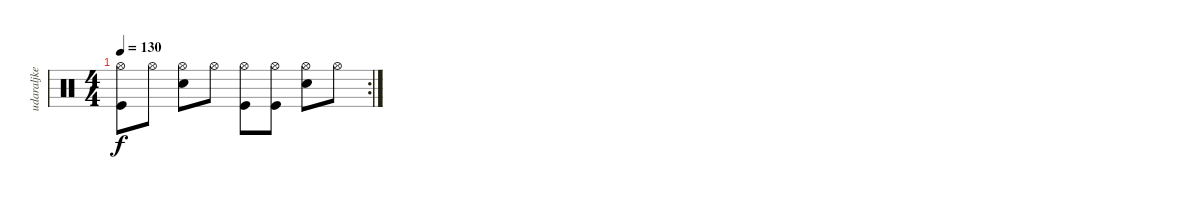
\track ("udaraljke" "udaraljke") {instrument percussion}
\staff {score}
\articulation defaults
\rc 2
\ts (4 4)
\tempo 130
\clef neutral
\ks c
("Hi-Hat (open)" "Kick (hit)").8{dy f} "Hi-Hat (open)".8 ("Hi-Hat (open)" "Electric Snare (hit)").8 "Hi-Hat (open)".8 ("Hi-Hat (open)" "Kick (hit)").8 ("Hi-Hat (open)" "Kick (hit)").8 ("Hi-Hat (open)" "Electric Snare (hit)").8 "Hi-Hat (open)".8
